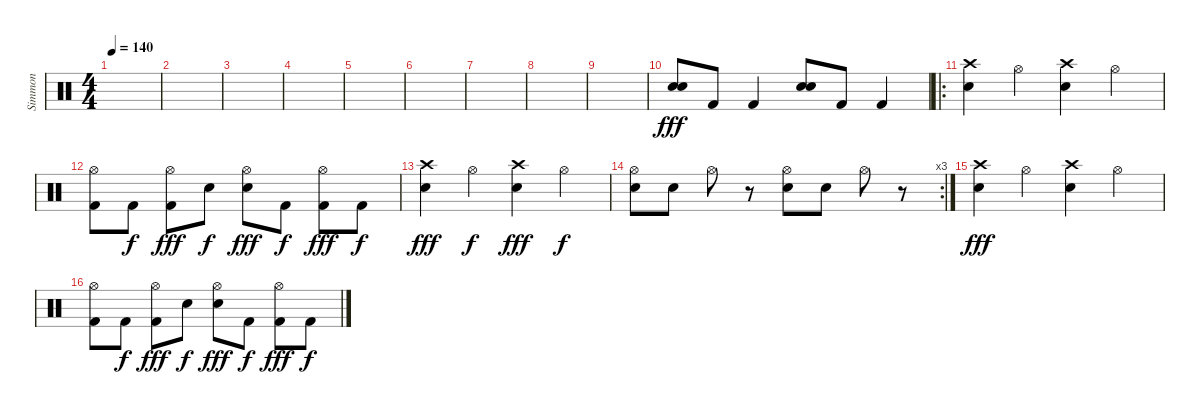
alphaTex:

\track ("Simmon" "Simmon") {instrument percussion}
\staff {score}
\articulation defaults
\ts (4 4)
\tempo 140
\clef neutral
\ks c
|
|
|
|
|
|
|
|
|
("Electric Snare (hit)" "Snare (hit) 2").8{dy fff} "Kick (hit) 2".8 "Kick (hit) 2".4 ("Electric Snare (hit)" "Snare (hit) 2").8 "Kick (hit) 2".8 "Kick (hit) 2".4 |
\ro
("Crash high (hit)" "Electric Snare (hit)").4 "Hi-Hat (open)".4 ("Crash high (hit)" "Electric Snare (hit)").4 "Hi-Hat (open)".4 |
("Kick (hit) 2" "Hi-Hat (open)").8 "Kick (hit) 2".8{dy f} ("Kick (hit) 2" "Hi-Hat (open)").8{dy fff} "Electric Snare (hit)".8{dy f} ("Electric Snare (hit)" "Hi-Hat (open)").8{dy fff} "Kick (hit) 2".8{dy f} ("Kick (hit) 2" "Hi-Hat (open)").8{dy fff} "Kick (hit) 2".8{dy f} |
("Crash high (hit)" "Electric Snare (hit)").4{dy fff} "Hi-Hat (open)".4{dy f} ("Crash high (hit)" "Electric Snare (hit)").4{dy fff} "Hi-Hat (open)".4{dy f} |
\rc 3
("Electric Snare (hit)" "Hi-Hat (open)").8 "Electric Snare (hit)".8 "Hi-Hat (open)".8 r.8 ("Electric Snare (hit)" "Hi-Hat (open)").8 "Electric Snare (hit)".8 "Hi-Hat (open)".8 r.8 |
("Crash high (hit)" "Electric Snare (hit)").4{dy fff} "Hi-Hat (open)".4 ("Crash high (hit)" "Electric Snare (hit)").4 "Hi-Hat (open)".4 |
("Kick (hit) 2" "Hi-Hat (open)").8 "Kick (hit) 2".8{dy f} ("Kick (hit) 2" "Hi-Hat (open)").8{dy fff} "Electric Snare (hit)".8{dy f} ("Electric Snare (hit)" "Hi-Hat (open)").8{dy fff} "Kick (hit) 2".8{dy f} ("Kick (hit) 2" "Hi-Hat (open)").8{dy fff} "Kick (hit) 2".8{dy f}
